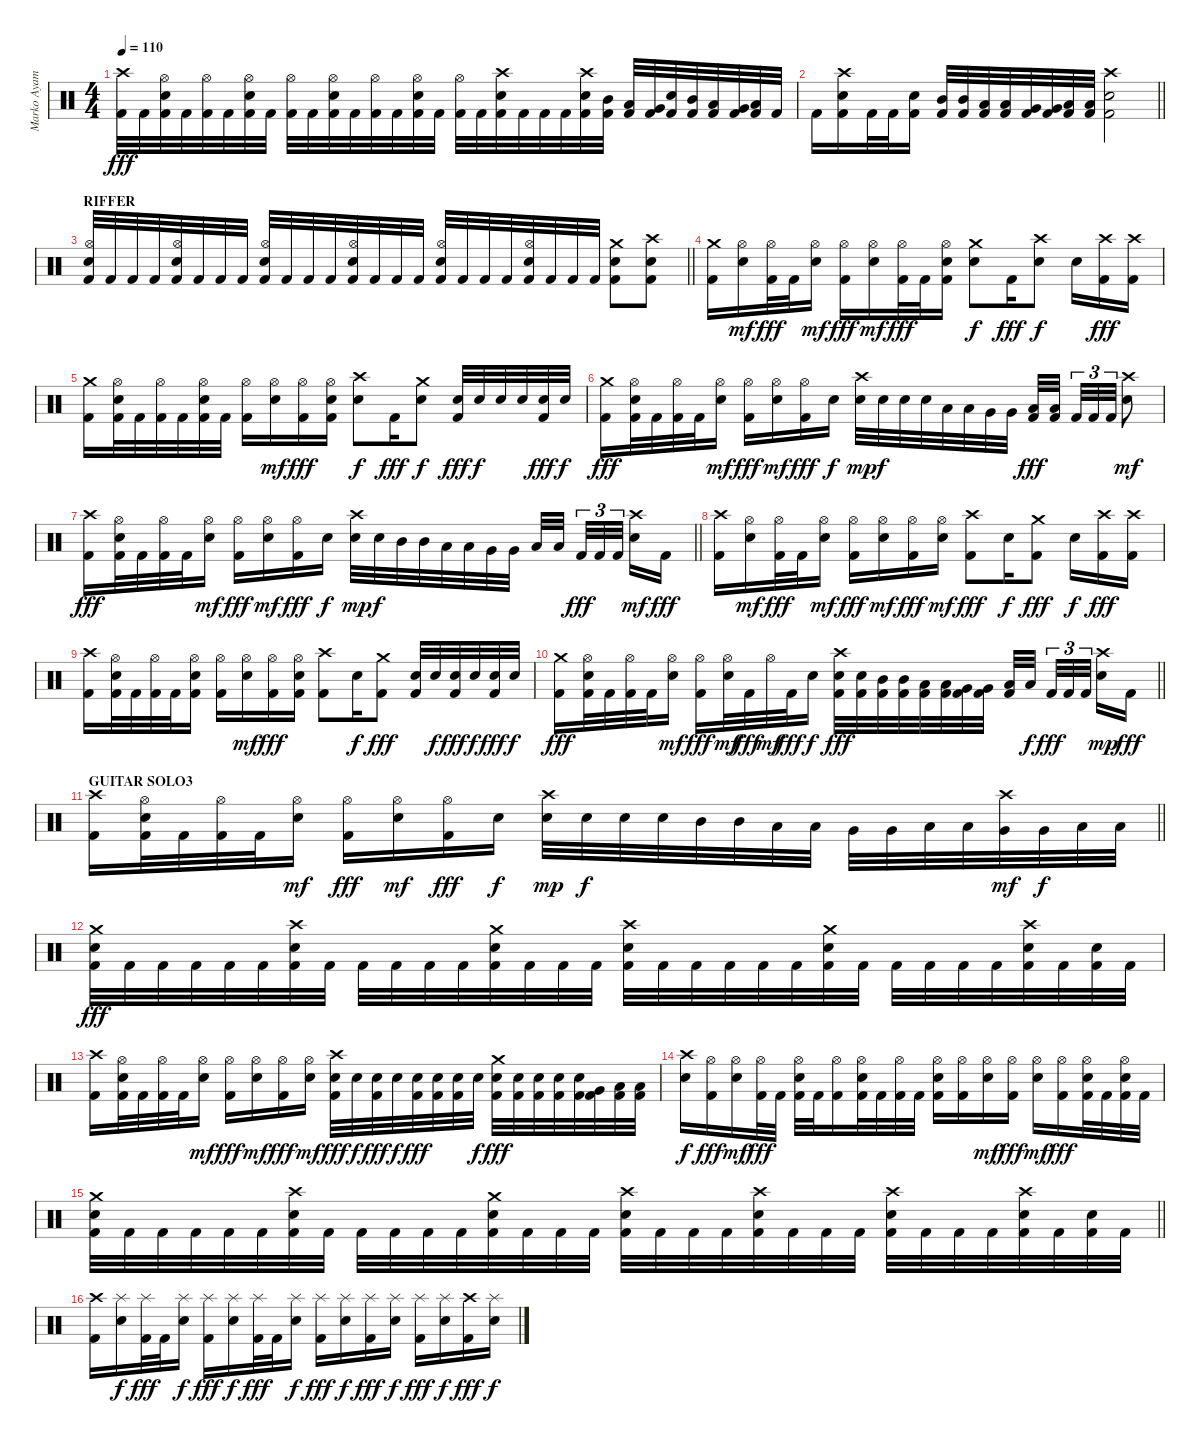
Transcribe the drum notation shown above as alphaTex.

\track ("Marko Ayamani" "Marko Ayam") {instrument percussion}
\staff {score}
\articulation defaults
\ts (4 4)
\tempo 110
\clef neutral
\ks c
("Crash high (hit)" "Kick (hit) 2").32{dy fff} "Kick (hit) 2".32 ("Hi-Hat (open)" "Snare (hit) 2" "Kick (hit) 2").32 "Kick (hit) 2".32 ("Hi-Hat (open)" "Kick (hit) 2").32 "Kick (hit) 2".32 ("Hi-Hat (open)" "Snare (hit) 2" "Kick (hit) 2").32 "Kick (hit) 2".32 ("Hi-Hat (open)" "Kick (hit) 2").32 "Kick (hit) 2".32 ("Hi-Hat (open)" "Snare (hit) 2" "Kick (hit) 2").32 "Kick (hit) 2".32 ("Hi-Hat (open)" "Kick (hit) 2").32 "Kick (hit) 2".32 ("Hi-Hat (open)" "Snare (hit) 2" "Kick (hit) 2").32 "Kick (hit) 2".32 ("Hi-Hat (open)" "Kick (hit) 2").32 "Kick (hit) 2".32 ("Crash high (hit)" "Snare (hit) 2" "Kick (hit) 2").32 "Kick (hit) 2".32 "Kick (hit) 2".32 "Kick (hit) 2".32 ("Crash high (hit)" "Snare (hit) 2" "Kick (hit) 2").32 ("Mid Tom (hit)" "Kick (hit) 2").32 ("Low Tom (hit)" "Kick (hit) 2").32 ("Very Low Tom (hit)" "Kick (hit) 2").32 ("Snare (hit) 2" "Kick (hit) 2").32 ("Mid Tom (hit)" "Kick (hit) 2").32 ("Low Tom (hit)" "Kick (hit) 2").32 ("Very Low Tom (hit)" "Kick (hit) 2").32 ("Low Floor Tom (hit)" "Kick (hit) 2").32 "Kick (hit) 2".32 |
\barLineRight lightlight "Kick (hit) 2".16
("Crash high (hit)" "Snare (hit) 2" "Kick (hit) 2").16 "Kick (hit) 2".32 "Kick (hit) 2".32 ("Snare (hit) 2" "Kick (hit) 2").16 ("Mid Tom (hit)" "Kick (hit) 2").32 ("Mid Tom (hit)" "Kick (hit) 2").32 ("Low Tom (hit)" "Kick (hit) 2").32 ("Low Tom (hit)" "Kick (hit) 2").32 ("Very Low Tom (hit)" "Kick (hit) 2").32 ("Very Low Tom (hit)" "Kick (hit) 2").32 ("Low Floor Tom (hit)" "Kick (hit) 2").32 ("Low Floor Tom (hit)" "Kick (hit) 2").32 ("Crash high (hit)" "Snare (hit) 2" "Kick (hit) 2").2 |
\section ("" "RIFFER ")
\barLineRight lightlight
("Hi-Hat (open)" "Snare (hit) 2" "Kick (hit) 2").32 "Kick (hit) 2".32 "Kick (hit) 2".32 "Kick (hit) 2".32 ("Hi-Hat (open)" "Snare (hit) 2" "Kick (hit) 2").32 "Kick (hit) 2".32 "Kick (hit) 2".32 "Kick (hit) 2".32 ("Hi-Hat (open)" "Snare (hit) 2" "Kick (hit) 2").32 "Kick (hit) 2".32 "Kick (hit) 2".32 "Kick (hit) 2".32 ("Hi-Hat (open)" "Snare (hit) 2" "Kick (hit) 2").32 "Kick (hit) 2".32 "Kick (hit) 2".32 "Kick (hit) 2".32 ("Hi-Hat (open)" "Snare (hit) 2" "Kick (hit) 2").32 "Kick (hit) 2".32 "Kick (hit) 2".32 "Kick (hit) 2".32 ("Hi-Hat (open)" "Snare (hit) 2" "Kick (hit) 2").32 "Kick (hit) 2".32 "Kick (hit) 2".32 "Kick (hit) 2".32 ("Crash medium (hit)" "Snare (hit) 2" "Kick (hit) 2").8 ("Crash high (hit)" "Snare (hit) 2" "Kick (hit) 2").8 |
("Crash medium (hit)" "Kick (hit) 2").16 ("Hi-Hat (open)" "Snare (hit) 2").16{dy mf} ("Hi-Hat (open)" "Kick (hit) 2").32{dy fff} "Kick (hit) 2".32 ("Hi-Hat (open)" "Snare (hit) 2").16{dy mf} ("Hi-Hat (open)" "Kick (hit) 2").16{dy fff} ("Hi-Hat (open)" "Snare (hit) 2").16{dy mf} ("Hi-Hat (open)" "Kick (hit) 2").32{dy fff} "Kick (hit) 2".32 ("Hi-Hat (open)" "Snare (hit) 2" "Kick (hit) 2").16 ("Crash medium (hit)" "Snare (hit) 2").8{dy f} "Kick (hit) 2".16{dy fff} ("Crash high (hit)" "Snare (hit) 2").8{dy f} "Snare (hit) 2".16 ("Crash high (hit)" "Kick (hit) 2").16{dy fff} ("Crash high (hit)" "Kick (hit) 2").16 |
("Crash medium (hit)" "Kick (hit) 2").16 ("Hi-Hat (open)" "Snare (hit) 2" "Kick (hit) 2").32 "Kick (hit) 2".32 ("Hi-Hat (open)" "Kick (hit) 2").32 "Kick (hit) 2".32 ("Hi-Hat (open)" "Snare (hit) 2" "Kick (hit) 2").32 "Kick (hit) 2".32 ("Hi-Hat (open)" "Kick (hit) 2").16 ("Hi-Hat (open)" "Snare (hit) 2").16{dy mf} ("Hi-Hat (open)" "Kick (hit) 2").16{dy fff} ("Hi-Hat (open)" "Snare (hit) 2" "Kick (hit) 2").16 ("Crash high (hit)" "Snare (hit) 2").8{dy f} "Kick (hit) 2".16{dy fff} ("Crash medium (hit)" "Snare (hit) 2").8{dy f} ("Snare (hit) 2" "Kick (hit) 2").32{dy fff} "Snare (hit) 2".32{dy f} "Snare (hit) 2".32 "Snare (hit) 2".32 ("Snare (hit) 2" "Kick (hit) 2").32{dy fff} "Snare (hit) 2".32{dy f} |
("Crash medium (hit)" "Kick (hit) 2").16{dy fff} ("Hi-Hat (open)" "Snare (hit) 2" "Kick (hit) 2").32 "Kick (hit) 2".32 ("Hi-Hat (open)" "Kick (hit) 2").32 "Kick (hit) 2".32 ("Hi-Hat (open)" "Snare (hit) 2").16{dy mf} ("Hi-Hat (open)" "Kick (hit) 2").16{dy fff} ("Hi-Hat (open)" "Snare (hit) 2").16{dy mf} ("Hi-Hat (open)" "Kick (hit) 2").16{dy fff} "Snare (hit) 2".16{dy f} ("Crash high (hit)" "Snare (hit) 2").32{dy mp} "Snare (hit) 2".32{dy f} "Snare (hit) 2".32 "Snare (hit) 2".32 "Low Tom (hit)".32 "Low Tom (hit)".32 "Very Low Tom (hit)".32 "Very Low Tom (hit)".32 ("Low Floor Tom (hit)" "Kick (hit) 2").32{dy fff} ("Low Floor Tom (hit)" "Kick (hit) 2").32{beam splitsecondary} "Kick (hit) 2".32{tu (3 2)} "Kick (hit) 2".32{tu (3 2)} "Kick (hit) 2".32{tu (3 2)} ("Crash high (hit)" "Snare (hit) 2").8{dy mf} |
\barLineRight lightlight
("Crash high (hit)" "Kick (hit) 2").16{dy fff} ("Hi-Hat (open)" "Snare (hit) 2" "Kick (hit) 2").32 "Kick (hit) 2".32 ("Hi-Hat (open)" "Kick (hit) 2").32 "Kick (hit) 2".32 ("Hi-Hat (open)" "Snare (hit) 2").16{dy mf} ("Hi-Hat (open)" "Kick (hit) 2").16{dy fff} ("Hi-Hat (open)" "Snare (hit) 2").16{dy mf} ("Hi-Hat (open)" "Kick (hit) 2").16{dy fff} "Snare (hit) 2".16{dy f} ("Crash high (hit)" "Snare (hit) 2").32{dy mp} "Snare (hit) 2".32{dy f} "Mid Tom (hit)".32 "Mid Tom (hit)".32 "Low Tom (hit)".32 "Low Tom (hit)".32 "Very Low Tom (hit)".32 "Very Low Tom (hit)".32 "Low Floor Tom (hit)".32 "Low Floor Tom (hit)".32{beam splitsecondary} "Kick (hit) 2".32{tu (3 2) dy fff} "Kick (hit) 2".32{tu (3 2)} "Kick (hit) 2".32{tu (3 2) beam splitsecondary} ("Crash high (hit)" "Snare (hit) 2").16{dy mf} "Kick (hit) 2".16{dy fff} |
("Crash high (hit)" "Kick (hit) 2").16 ("Hi-Hat (open)" "Snare (hit) 2").16{dy mf} ("Hi-Hat (open)" "Kick (hit) 2").32{dy fff} "Kick (hit) 2".32 ("Hi-Hat (open)" "Snare (hit) 2").16{dy mf} ("Hi-Hat (open)" "Kick (hit) 2").16{dy fff} ("Hi-Hat (open)" "Snare (hit) 2").16{dy mf} ("Hi-Hat (open)" "Kick (hit) 2").16{dy fff} ("Hi-Hat (open)" "Snare (hit) 2").16{dy mf} ("Crash high (hit)" "Kick (hit) 2").8{dy fff} "Snare (hit) 2".16{dy f} ("Crash medium (hit)" "Kick (hit) 2").8{dy fff} "Snare (hit) 2".16{dy f} ("Crash high (hit)" "Kick (hit) 2").16{dy fff} ("Crash high (hit)" "Kick (hit) 2").16 |
("Crash high (hit)" "Kick (hit) 2").16 ("Hi-Hat (open)" "Snare (hit) 2" "Kick (hit) 2").32 "Kick (hit) 2".32 ("Hi-Hat (open)" "Kick (hit) 2").32 "Kick (hit) 2".32 ("Hi-Hat (open)" "Snare (hit) 2" "Kick (hit) 2").16 ("Hi-Hat (open)" "Kick (hit) 2").16 ("Hi-Hat (open)" "Snare (hit) 2").16{dy mf} ("Hi-Hat (open)" "Kick (hit) 2").16{dy fff} ("Hi-Hat (open)" "Snare (hit) 2" "Kick (hit) 2").16 ("Crash high (hit)" "Kick (hit) 2").8 "Snare (hit) 2".16{dy f} ("Crash medium (hit)" "Kick (hit) 2").8{dy fff} ("Snare (hit) 2" "Kick (hit) 2").32 "Snare (hit) 2".32{dy f} ("Snare (hit) 2" "Kick (hit) 2").32{dy fff} "Snare (hit) 2".32{dy f} ("Snare (hit) 2" "Kick (hit) 2").32{dy fff} "Snare (hit) 2".32{dy f} |
\barLineRight lightlight
("Crash medium (hit)" "Kick (hit) 2").16{dy fff} ("Hi-Hat (open)" "Snare (hit) 2" "Kick (hit) 2").32 "Kick (hit) 2".32 ("Hi-Hat (open)" "Kick (hit) 2").32 "Kick (hit) 2".32 ("Hi-Hat (open)" "Snare (hit) 2").16{dy mf} ("Hi-Hat (open)" "Kick (hit) 2").16{dy fff} ("Hi-Hat (open)" "Snare (hit) 2").32{dy mf} "Kick (hit) 2".32{dy fff} "Hi-Hat (open)".32{dy mf} "Kick (hit) 2".32{dy fff} "Snare (hit) 2".16{dy f} ("Crash high (hit)" "Snare (hit) 2" "Kick (hit) 2").32{dy fff} ("Snare (hit) 2" "Kick (hit) 2").32 ("Mid Tom (hit)" "Kick (hit) 2").32 ("Mid Tom (hit)" "Kick (hit) 2").32 ("Low Tom (hit)" "Kick (hit) 2").32 ("Low Tom (hit)" "Kick (hit) 2").32 ("Very Low Tom (hit)" "Kick (hit) 2").32 ("Very Low Tom (hit)" "Kick (hit) 2").32 ("Low Floor Tom (hit)" "Kick (hit) 2").32 "Low Floor Tom (hit)".32{dy f beam splitsecondary} "Kick (hit) 2".32{tu (3 2) dy fff} "Kick (hit) 2".32{tu (3 2)} "Kick (hit) 2".32{tu (3 2) beam splitsecondary} ("Crash high (hit)" "Snare (hit) 2").16{dy mp} "Kick (hit) 2".16{dy fff} |
\section ("" "GUITAR SOLO3")
\barLineRight lightlight
("Crash high (hit)" "Kick (hit) 2").16 ("Hi-Hat (open)" "Snare (hit) 2" "Kick (hit) 2").32 "Kick (hit) 2".32 ("Hi-Hat (open)" "Kick (hit) 2").32 "Kick (hit) 2".32 ("Hi-Hat (open)" "Snare (hit) 2").16{dy mf} ("Hi-Hat (open)" "Kick (hit) 2").16{dy fff} ("Hi-Hat (open)" "Snare (hit) 2").16{dy mf} ("Hi-Hat (open)" "Kick (hit) 2").16{dy fff} "Snare (hit) 2".16{dy f} ("Crash high (hit)" "Snare (hit) 2").32{dy mp} "Snare (hit) 2".32{dy f} "Snare (hit) 2".32 "Snare (hit) 2".32 "Mid Tom (hit)".32 "Mid Tom (hit)".32 "Low Tom (hit)".32 "Low Tom (hit)".32 "Very Low Tom (hit)".32 "Very Low Tom (hit)".32 "Low Tom (hit)".32 "Low Tom (hit)".32 ("Crash high (hit)" "Very Low Tom (hit)").32{dy mf} "Very Low Tom (hit)".32{dy f} "Low Floor Tom (hit)".32 "Low Floor Tom (hit)".32 |
("Crash medium (hit)" "Snare (hit) 2" "Kick (hit) 2").32{dy fff} "Kick (hit) 2".32 "Kick (hit) 2".32 "Kick (hit) 2".32 "Kick (hit) 2".32 "Kick (hit) 2".32 ("Crash high (hit)" "Snare (hit) 2" "Kick (hit) 2").32 "Kick (hit) 2".32 "Kick (hit) 2".32 "Kick (hit) 2".32 "Kick (hit) 2".32 "Kick (hit) 2".32 ("Crash medium (hit)" "Snare (hit) 2" "Kick (hit) 2").32 "Kick (hit) 2".32 "Kick (hit) 2".32 "Kick (hit) 2".32 ("Crash high (hit)" "Snare (hit) 2" "Kick (hit) 2").32 "Kick (hit) 2".32 "Kick (hit) 2".32 "Kick (hit) 2".32 "Kick (hit) 2".32 "Kick (hit) 2".32 ("Crash medium (hit)" "Snare (hit) 2" "Kick (hit) 2").32 "Kick (hit) 2".32 "Kick (hit) 2".32 "Kick (hit) 2".32 "Kick (hit) 2".32 "Kick (hit) 2".32 ("Crash high (hit)" "Snare (hit) 2" "Kick (hit) 2").32 "Kick (hit) 2".32 ("Snare (hit) 2" "Kick (hit) 2").32 "Kick (hit) 2".32 |
("Crash high (hit)" "Kick (hit) 2").16 ("Hi-Hat (open)" "Snare (hit) 2" "Kick (hit) 2").32 "Kick (hit) 2".32 ("Hi-Hat (open)" "Kick (hit) 2").32 "Kick (hit) 2".32 ("Hi-Hat (open)" "Snare (hit) 2").16{dy mf} ("Hi-Hat (open)" "Kick (hit) 2").16{dy fff} ("Hi-Hat (open)" "Snare (hit) 2").16{dy mf} ("Hi-Hat (open)" "Kick (hit) 2").16{dy fff} ("Hi-Hat (open)" "Snare (hit) 2").16{dy mf} ("Crash high (hit)" "Snare (hit) 2" "Kick (hit) 2").32{dy fff} "Snare (hit) 2".32{dy f} ("Snare (hit) 2" "Kick (hit) 2").32{dy fff} "Snare (hit) 2".32{dy f} ("Snare (hit) 2" "Kick (hit) 2").32{dy fff} ("Snare (hit) 2" "Kick (hit) 2").32 ("Snare (hit) 2" "Kick (hit) 2").32 "Snare (hit) 2".32{dy f} ("Crash medium (hit)" "Snare (hit) 2" "Kick (hit) 2").32{dy fff} ("Snare (hit) 2" "Kick (hit) 2").32 ("Snare (hit) 2" "Kick (hit) 2").32 ("Snare (hit) 2" "Kick (hit) 2").32 ("Snare (hit) 2" "Kick (hit) 2").32 ("Very Low Tom (hit)" "Kick (hit) 2").32 ("Low Floor Tom (hit)" "Kick (hit) 2").32 ("Low Floor Tom (hit)" "Kick (hit) 2").32 |
("Crash high (hit)" "Snare (hit) 2").16{dy f} ("Hi-Hat (open)" "Kick (hit) 2").16{dy fff} ("Hi-Hat (open)" "Snare (hit) 2").16{dy mf} ("Hi-Hat (open)" "Kick (hit) 2").32{dy fff} "Kick (hit) 2".32 ("Hi-Hat (open)" "Snare (hit) 2" "Kick (hit) 2").32 "Kick (hit) 2".32 ("Hi-Hat (open)" "Kick (hit) 2").16 ("Hi-Hat (open)" "Snare (hit) 2" "Kick (hit) 2").32 "Kick (hit) 2".32 ("Hi-Hat (open)" "Kick (hit) 2").32 "Kick (hit) 2".32 ("Hi-Hat (open)" "Snare (hit) 2" "Kick (hit) 2").16 ("Hi-Hat (open)" "Kick (hit) 2").16 ("Hi-Hat (open)" "Snare (hit) 2").16{dy mf} ("Hi-Hat (open)" "Kick (hit) 2").16{dy fff} ("Hi-Hat (open)" "Snare (hit) 2").16{dy mf} ("Hi-Hat (open)" "Kick (hit) 2").16{dy fff} ("Hi-Hat (open)" "Snare (hit) 2" "Kick (hit) 2").32 "Kick (hit) 2".32 ("Hi-Hat (open)" "Snare (hit) 2" "Kick (hit) 2").32 "Kick (hit) 2".32 |
\barLineRight lightlight
("Crash medium (hit)" "Snare (hit) 2" "Kick (hit) 2").32 "Kick (hit) 2".32 "Kick (hit) 2".32 "Kick (hit) 2".32 "Kick (hit) 2".32 "Kick (hit) 2".32 ("Crash high (hit)" "Snare (hit) 2" "Kick (hit) 2").32 "Kick (hit) 2".32 "Kick (hit) 2".32 "Kick (hit) 2".32 "Kick (hit) 2".32 "Kick (hit) 2".32 ("Crash medium (hit)" "Snare (hit) 2" "Kick (hit) 2").32 "Kick (hit) 2".32 "Kick (hit) 2".32 "Kick (hit) 2".32 ("Crash high (hit)" "Snare (hit) 2" "Kick (hit) 2").32 "Kick (hit) 2".32 "Kick (hit) 2".32 "Kick (hit) 2".32 ("Crash high (hit)" "Snare (hit) 2" "Kick (hit) 2").32 "Kick (hit) 2".32 "Kick (hit) 2".32 "Kick (hit) 2".32 ("Crash high (hit)" "Snare (hit) 2" "Kick (hit) 2").32 "Kick (hit) 2".32 "Kick (hit) 2".32 "Kick (hit) 2".32 ("Crash high (hit)" "Snare (hit) 2" "Kick (hit) 2").32 "Kick (hit) 2".32 ("Snare (hit) 2" "Kick (hit) 2").32 "Kick (hit) 2".32 |
("Crash high (hit)" "Kick (hit) 2").16 ("Splash (hit)" "Snare (hit) 2").16{dy f} ("Splash (hit)" "Kick (hit) 2").32{dy fff} "Kick (hit) 2".32 ("Splash (hit)" "Snare (hit) 2").16{dy f} ("Splash (hit)" "Kick (hit) 2").16{dy fff} ("Splash (hit)" "Snare (hit) 2").16{dy f} ("Splash (hit)" "Kick (hit) 2").32{dy fff} "Kick (hit) 2".32 ("Splash (hit)" "Snare (hit) 2").16{dy f} ("Splash (hit)" "Kick (hit) 2").16{dy fff} ("Splash (hit)" "Snare (hit) 2").16{dy f} ("Splash (hit)" "Kick (hit) 2").16{dy fff} ("Splash (hit)" "Snare (hit) 2").16{dy f} ("Splash (hit)" "Kick (hit) 2").16{dy fff} ("Splash (hit)" "Snare (hit) 2").16{dy f} ("Crash high (hit)" "Kick (hit) 2").16{dy fff} ("Splash (hit)" "Snare (hit) 2").16{dy f}
